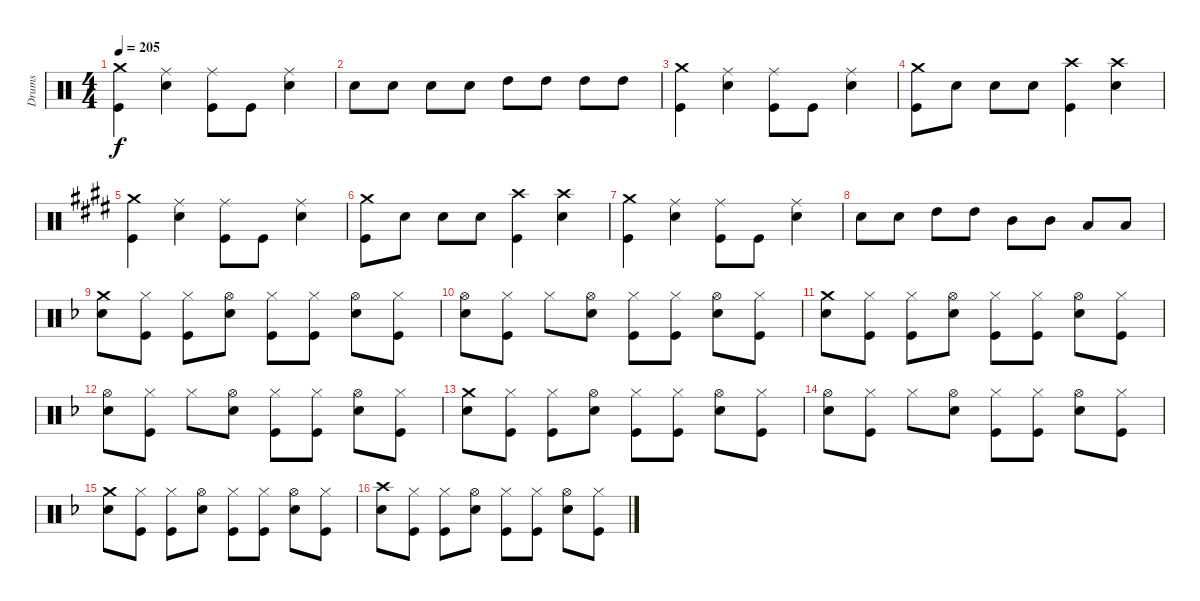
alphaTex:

\track ("Drums" "Drums") {instrument percussion}
\staff {score}
\articulation defaults
\ts (4 4)
\tempo 205
\clef neutral
\ks c
("Crash medium (hit)" "Kick (hit)").4{dy f} ("Ride (middle)" "Electric Snare (hit)").4 ("Ride (middle)" "Kick (hit)").8 "Kick (hit)".8 ("Ride (middle)" "Electric Snare (hit)").4 |
"Electric Snare (hit)".8 "Electric Snare (hit)".8 "Electric Snare (hit)".8 "Electric Snare (hit)".8 "High Tom (hit)".8 "High Tom (hit)".8 "High Tom (hit)".8 "High Tom (hit)".8 |
("Crash medium (hit)" "Kick (hit)").4 ("Ride (middle)" "Electric Snare (hit)").4 ("Ride (middle)" "Kick (hit)").8 "Kick (hit)".8 ("Ride (middle)" "Electric Snare (hit)").4 |
("Crash medium (hit)" "Kick (hit)").8 "Electric Snare (hit)".8 "Electric Snare (hit)".8 "Electric Snare (hit)".8 ("Crash high (hit)" "Kick (hit)").4 ("Electric Snare (hit)" "Crash high (hit)").4 |
\ks e
("Crash medium (hit)" "Kick (hit)").4 ("Electric Snare (hit)" "Ride (middle)").4 ("Kick (hit)" "Ride (middle)").8 "Kick (hit)".8 ("Electric Snare (hit)" "Ride (middle)").4 |
("Crash medium (hit)" "Kick (hit)").8 "Electric Snare (hit)".8 "Electric Snare (hit)".8 "Electric Snare (hit)".8 ("Crash high (hit)" "Kick (hit)").4 ("Electric Snare (hit)" "Crash high (hit)").4 |
("Crash medium (hit)" "Kick (hit)").4 ("Electric Snare (hit)" "Ride (middle)").4 ("Kick (hit)" "Ride (middle)").8 "Kick (hit)".8 ("Electric Snare (hit)" "Ride (middle)").4 |
"Electric Snare (hit)".8 "Electric Snare (hit)".8 "High Tom (hit)".8 "High Tom (hit)".8 "Mid Tom (hit)".8 "Mid Tom (hit)".8 "Low Tom (hit)".8 "Low Tom (hit)".8 |
\ks f
("Crash medium (hit)" "Electric Snare (hit)").8 ("Hi-Hat (closed)" "Kick (hit)").8 ("Hi-Hat (closed)" "Kick (hit)").8 ("Hi-Hat (open)" "Electric Snare (hit)").8 ("Hi-Hat (closed)" "Kick (hit)").8 ("Hi-Hat (closed)" "Kick (hit)").8 ("Hi-Hat (open)" "Electric Snare (hit)").8 ("Hi-Hat (closed)" "Kick (hit)").8 |
("Hi-Hat (open)" "Electric Snare (hit)").8 ("Hi-Hat (closed)" "Kick (hit)").8 "Hi-Hat (closed)".8 ("Hi-Hat (open)" "Electric Snare (hit)").8 ("Hi-Hat (closed)" "Kick (hit)").8 ("Hi-Hat (closed)" "Kick (hit)").8 ("Hi-Hat (open)" "Electric Snare (hit)").8 ("Hi-Hat (closed)" "Kick (hit)").8 |
("Crash medium (hit)" "Electric Snare (hit)").8 ("Hi-Hat (closed)" "Kick (hit)").8 ("Hi-Hat (closed)" "Kick (hit)").8 ("Hi-Hat (open)" "Electric Snare (hit)").8 ("Hi-Hat (closed)" "Kick (hit)").8 ("Hi-Hat (closed)" "Kick (hit)").8 ("Hi-Hat (open)" "Electric Snare (hit)").8 ("Hi-Hat (closed)" "Kick (hit)").8 |
("Hi-Hat (open)" "Electric Snare (hit)").8 ("Hi-Hat (closed)" "Kick (hit)").8 "Hi-Hat (closed)".8 ("Hi-Hat (open)" "Electric Snare (hit)").8 ("Hi-Hat (closed)" "Kick (hit)").8 ("Hi-Hat (closed)" "Kick (hit)").8 ("Hi-Hat (open)" "Electric Snare (hit)").8 ("Hi-Hat (closed)" "Kick (hit)").8 |
("Crash medium (hit)" "Electric Snare (hit)").8 ("Hi-Hat (closed)" "Kick (hit)").8 ("Hi-Hat (closed)" "Kick (hit)").8 ("Hi-Hat (open)" "Electric Snare (hit)").8 ("Hi-Hat (closed)" "Kick (hit)").8 ("Hi-Hat (closed)" "Kick (hit)").8 ("Hi-Hat (open)" "Electric Snare (hit)").8 ("Hi-Hat (closed)" "Kick (hit)").8 |
("Hi-Hat (open)" "Electric Snare (hit)").8 ("Hi-Hat (closed)" "Kick (hit)").8 "Hi-Hat (closed)".8 ("Hi-Hat (open)" "Electric Snare (hit)").8 ("Hi-Hat (closed)" "Kick (hit)").8 ("Hi-Hat (closed)" "Kick (hit)").8 ("Hi-Hat (open)" "Electric Snare (hit)").8 ("Hi-Hat (closed)" "Kick (hit)").8 |
("Crash medium (hit)" "Electric Snare (hit)").8 ("Hi-Hat (closed)" "Kick (hit)").8 ("Hi-Hat (closed)" "Kick (hit)").8 ("Hi-Hat (open)" "Electric Snare (hit)").8 ("Hi-Hat (closed)" "Kick (hit)").8 ("Hi-Hat (closed)" "Kick (hit)").8 ("Hi-Hat (open)" "Electric Snare (hit)").8 ("Hi-Hat (closed)" "Kick (hit)").8 |
("Crash high (hit)" "Electric Snare (hit)").8 ("Hi-Hat (closed)" "Kick (hit)").8 ("Hi-Hat (closed)" "Kick (hit)").8 ("Hi-Hat (open)" "Electric Snare (hit)").8 ("Hi-Hat (closed)" "Kick (hit)").8 ("Hi-Hat (closed)" "Kick (hit)").8 ("Hi-Hat (open)" "Electric Snare (hit)").8 ("Hi-Hat (closed)" "Kick (hit)").8
